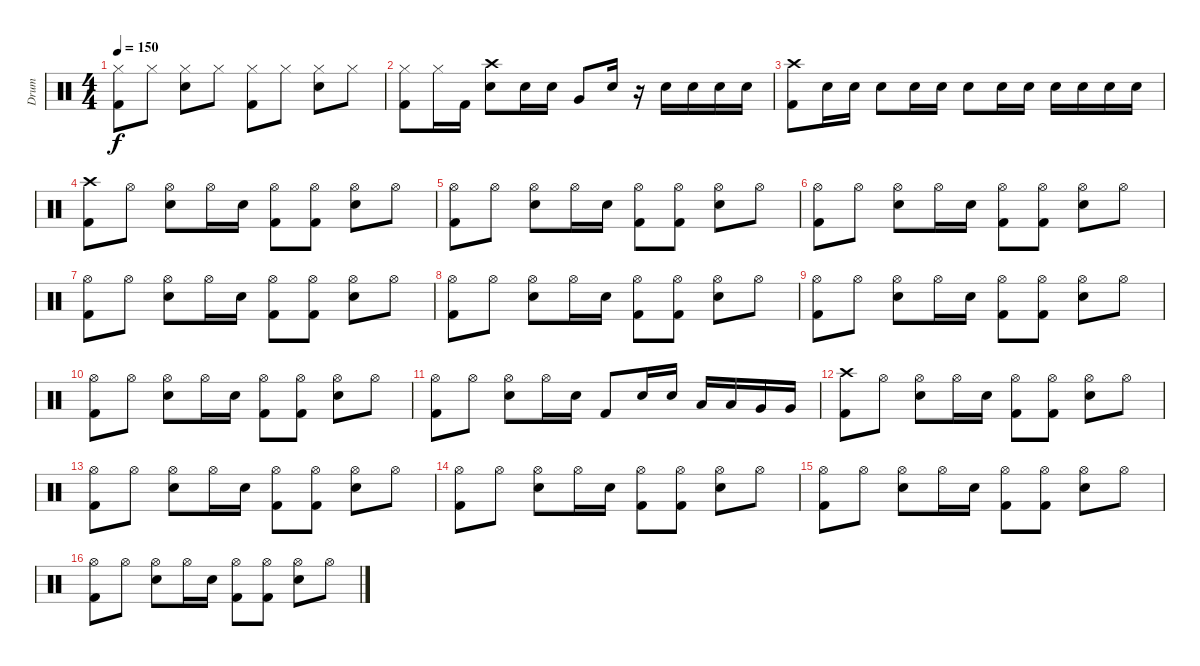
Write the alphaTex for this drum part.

\track ("Drum" "Drum") {instrument percussion}
\staff {score}
\articulation defaults
\ts (4 4)
\tempo 150
\clef neutral
\ks c
("Kick (hit) 2" "Hi-Hat (closed)").8{dy f} "Hi-Hat (closed)".8 ("Hi-Hat (closed)" "Snare (hit) 2").8 "Hi-Hat (closed)".8 ("Hi-Hat (closed)" "Kick (hit) 2").8 "Hi-Hat (closed)".8 ("Hi-Hat (closed)" "Snare (hit) 2").8 "Hi-Hat (closed)".8 |
("Kick (hit) 2" "Hi-Hat (closed)").8 "Hi-Hat (closed)".16 "Kick (hit) 2".16 ("Snare (hit) 2" "Crash high (hit)").8 "Snare (hit) 2".16 "Snare (hit) 2".16 "Very Low Tom (hit)".8 "Snare (hit) 2".16 r.16 "Snare (hit) 2".16 "Snare (hit) 2".16 "Snare (hit) 2".16 "Snare (hit) 2".16 |
("Crash high (hit)" "Kick (hit) 2").8 "Snare (hit) 2".16 "Snare (hit) 2".16 "Snare (hit) 2".8 "Snare (hit) 2".16 "Snare (hit) 2".16 "Snare (hit) 2".8 "Snare (hit) 2".16 "Snare (hit) 2".16 "Snare (hit) 2".16 "Snare (hit) 2".16 "Snare (hit) 2".16 "Snare (hit) 2".16 |
("Crash high (hit)" "Kick (hit) 2").8 "Hi-Hat (open)".8 ("Hi-Hat (open)" "Snare (hit) 2").8 "Hi-Hat (open)".16 "Snare (hit) 2".16 ("Hi-Hat (open)" "Kick (hit) 2").8 ("Hi-Hat (open)" "Kick (hit) 2").8 ("Hi-Hat (open)" "Snare (hit) 2").8 "Hi-Hat (open)".8 |
("Hi-Hat (open)" "Kick (hit) 2").8 "Hi-Hat (open)".8 ("Hi-Hat (open)" "Snare (hit) 2").8 "Hi-Hat (open)".16 "Snare (hit) 2".16 ("Hi-Hat (open)" "Kick (hit) 2").8 ("Hi-Hat (open)" "Kick (hit) 2").8 ("Hi-Hat (open)" "Snare (hit) 2").8 "Hi-Hat (open)".8 |
("Hi-Hat (open)" "Kick (hit) 2").8 "Hi-Hat (open)".8 ("Hi-Hat (open)" "Snare (hit) 2").8 "Hi-Hat (open)".16 "Snare (hit) 2".16 ("Hi-Hat (open)" "Kick (hit) 2").8 ("Hi-Hat (open)" "Kick (hit) 2").8 ("Hi-Hat (open)" "Snare (hit) 2").8 "Hi-Hat (open)".8 |
("Hi-Hat (open)" "Kick (hit) 2").8 "Hi-Hat (open)".8 ("Hi-Hat (open)" "Snare (hit) 2").8 "Hi-Hat (open)".16 "Snare (hit) 2".16 ("Hi-Hat (open)" "Kick (hit) 2").8 ("Hi-Hat (open)" "Kick (hit) 2").8 ("Hi-Hat (open)" "Snare (hit) 2").8 "Hi-Hat (open)".8 |
("Hi-Hat (open)" "Kick (hit) 2").8 "Hi-Hat (open)".8 ("Hi-Hat (open)" "Snare (hit) 2").8 "Hi-Hat (open)".16 "Snare (hit) 2".16 ("Hi-Hat (open)" "Kick (hit) 2").8 ("Hi-Hat (open)" "Kick (hit) 2").8 ("Hi-Hat (open)" "Snare (hit) 2").8 "Hi-Hat (open)".8 |
("Hi-Hat (open)" "Kick (hit) 2").8 "Hi-Hat (open)".8 ("Hi-Hat (open)" "Snare (hit) 2").8 "Hi-Hat (open)".16 "Snare (hit) 2".16 ("Hi-Hat (open)" "Kick (hit) 2").8 ("Hi-Hat (open)" "Kick (hit) 2").8 ("Hi-Hat (open)" "Snare (hit) 2").8 "Hi-Hat (open)".8 |
("Hi-Hat (open)" "Kick (hit) 2").8 "Hi-Hat (open)".8 ("Hi-Hat (open)" "Snare (hit) 2").8 "Hi-Hat (open)".16 "Snare (hit) 2".16 ("Hi-Hat (open)" "Kick (hit) 2").8 ("Hi-Hat (open)" "Kick (hit) 2").8 ("Hi-Hat (open)" "Snare (hit) 2").8 "Hi-Hat (open)".8 |
("Hi-Hat (open)" "Kick (hit) 2").8 "Hi-Hat (open)".8 ("Hi-Hat (open)" "Snare (hit) 2").8 "Hi-Hat (open)".16 "Snare (hit) 2".16 "Kick (hit) 2".8 "Snare (hit) 2".16 "Snare (hit) 2".16 "Low Tom (hit)".16 "Low Tom (hit)".16 "Very Low Tom (hit)".16 "Very Low Tom (hit)".16 |
("Crash high (hit)" "Kick (hit) 2").8 "Hi-Hat (open)".8 ("Hi-Hat (open)" "Snare (hit) 2").8 "Hi-Hat (open)".16 "Snare (hit) 2".16 ("Hi-Hat (open)" "Kick (hit) 2").8 ("Hi-Hat (open)" "Kick (hit) 2").8 ("Hi-Hat (open)" "Snare (hit) 2").8 "Hi-Hat (open)".8 |
("Hi-Hat (open)" "Kick (hit) 2").8 "Hi-Hat (open)".8 ("Hi-Hat (open)" "Snare (hit) 2").8 "Hi-Hat (open)".16 "Snare (hit) 2".16 ("Hi-Hat (open)" "Kick (hit) 2").8 ("Hi-Hat (open)" "Kick (hit) 2").8 ("Hi-Hat (open)" "Snare (hit) 2").8 "Hi-Hat (open)".8 |
("Hi-Hat (open)" "Kick (hit) 2").8 "Hi-Hat (open)".8 ("Hi-Hat (open)" "Snare (hit) 2").8 "Hi-Hat (open)".16 "Snare (hit) 2".16 ("Hi-Hat (open)" "Kick (hit) 2").8 ("Hi-Hat (open)" "Kick (hit) 2").8 ("Hi-Hat (open)" "Snare (hit) 2").8 "Hi-Hat (open)".8 |
("Hi-Hat (open)" "Kick (hit) 2").8 "Hi-Hat (open)".8 ("Hi-Hat (open)" "Snare (hit) 2").8 "Hi-Hat (open)".16 "Snare (hit) 2".16 ("Hi-Hat (open)" "Kick (hit) 2").8 ("Hi-Hat (open)" "Kick (hit) 2").8 ("Hi-Hat (open)" "Snare (hit) 2").8 "Hi-Hat (open)".8 |
("Hi-Hat (open)" "Kick (hit) 2").8 "Hi-Hat (open)".8 ("Hi-Hat (open)" "Snare (hit) 2").8 "Hi-Hat (open)".16 "Snare (hit) 2".16 ("Hi-Hat (open)" "Kick (hit) 2").8 ("Hi-Hat (open)" "Kick (hit) 2").8 ("Hi-Hat (open)" "Snare (hit) 2").8 "Hi-Hat (open)".8
